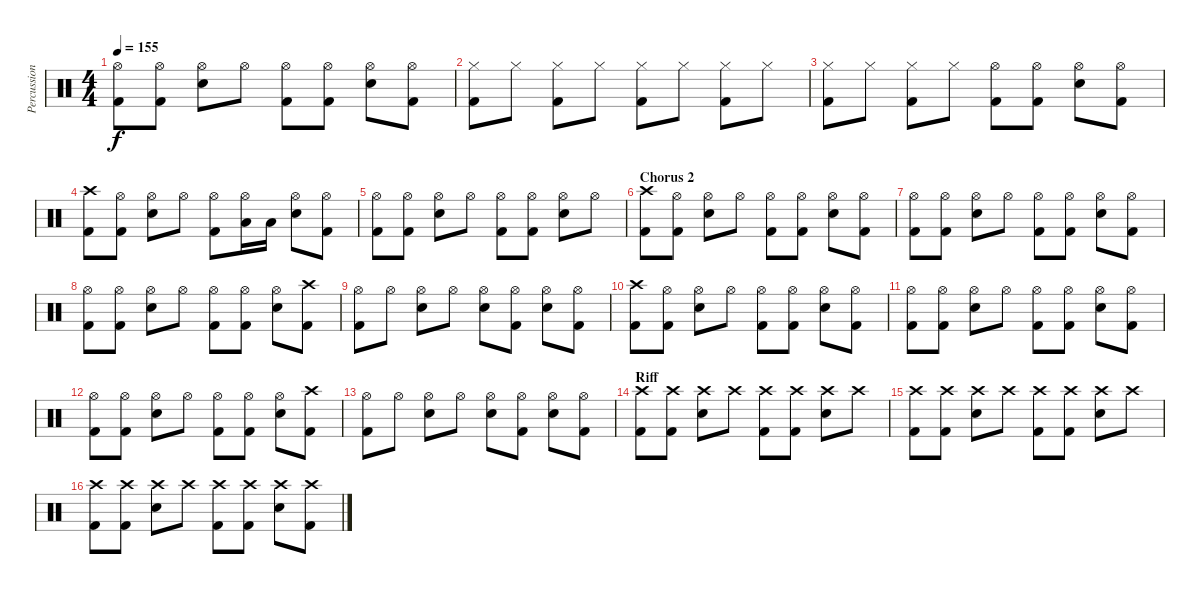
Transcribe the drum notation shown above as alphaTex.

\track ("Percussion" "Percussion") {instrument percussion}
\staff {score}
\articulation defaults
\ts (4 4)
\tempo 155
\clef neutral
\ks c
("Hi-Hat (open)" "Kick (hit) 2").8{dy f} ("Hi-Hat (open)" "Kick (hit) 2").8 ("Hi-Hat (open)" "Snare (hit) 2").8 "Hi-Hat (open)".8 ("Hi-Hat (open)" "Kick (hit) 2").8 ("Hi-Hat (open)" "Kick (hit) 2").8 ("Hi-Hat (open)" "Snare (hit) 2").8 ("Hi-Hat (open)" "Kick (hit) 2").8 |
("Hi-Hat (closed)" "Kick (hit) 2").8 "Hi-Hat (closed)".8 ("Hi-Hat (closed)" "Kick (hit) 2").8 "Hi-Hat (closed)".8 ("Hi-Hat (closed)" "Kick (hit) 2").8 "Hi-Hat (closed)".8 ("Hi-Hat (closed)" "Kick (hit) 2").8 "Hi-Hat (closed)".8 |
("Hi-Hat (closed)" "Kick (hit) 2").8 "Hi-Hat (closed)".8 ("Hi-Hat (closed)" "Kick (hit) 2").8 "Hi-Hat (closed)".8 ("Hi-Hat (open)" "Kick (hit) 2").8 ("Hi-Hat (open)" "Kick (hit) 2").8 ("Hi-Hat (open)" "Snare (hit) 2").8 ("Hi-Hat (open)" "Kick (hit) 2").8 |
("Crash high (hit)" "Kick (hit) 2").8 ("Hi-Hat (open)" "Kick (hit) 2").8 ("Hi-Hat (open)" "Snare (hit) 2").8 "Hi-Hat (open)".8 ("Hi-Hat (open)" "Kick (hit) 2").8 ("Hi-Hat (open)" "Low Tom (hit)").16 "Low Tom (hit)".16 ("Hi-Hat (open)" "Snare (hit) 2").8 ("Hi-Hat (open)" "Kick (hit) 2").8 |
("Hi-Hat (open)" "Kick (hit) 2").8 ("Hi-Hat (open)" "Kick (hit) 2").8 ("Hi-Hat (open)" "Snare (hit) 2").8 "Hi-Hat (open)".8 ("Hi-Hat (open)" "Kick (hit) 2").8 ("Hi-Hat (open)" "Kick (hit) 2").8 ("Hi-Hat (open)" "Snare (hit) 2").8 "Hi-Hat (open)".8 |
\section ("" "Chorus 2")
("Crash high (hit)" "Kick (hit) 2").8 ("Hi-Hat (open)" "Kick (hit) 2").8 ("Hi-Hat (open)" "Snare (hit) 2").8 "Hi-Hat (open)".8 ("Hi-Hat (open)" "Kick (hit) 2").8 ("Hi-Hat (open)" "Kick (hit) 2").8 ("Hi-Hat (open)" "Snare (hit) 2").8 ("Hi-Hat (open)" "Kick (hit) 2").8 |
("Hi-Hat (open)" "Kick (hit) 2").8 ("Hi-Hat (open)" "Kick (hit) 2").8 ("Hi-Hat (open)" "Snare (hit) 2").8 "Hi-Hat (open)".8 ("Hi-Hat (open)" "Kick (hit) 2").8 ("Hi-Hat (open)" "Kick (hit) 2").8 ("Hi-Hat (open)" "Snare (hit) 2").8 ("Hi-Hat (open)" "Kick (hit) 2").8 |
("Hi-Hat (open)" "Kick (hit) 2").8 ("Hi-Hat (open)" "Kick (hit) 2").8 ("Hi-Hat (open)" "Snare (hit) 2").8 "Hi-Hat (open)".8 ("Hi-Hat (open)" "Kick (hit) 2").8 ("Hi-Hat (open)" "Kick (hit) 2").8 ("Hi-Hat (open)" "Snare (hit) 2").8 ("Crash high (hit)" "Kick (hit) 2").8 |
("Hi-Hat (open)" "Kick (hit) 2").8 "Hi-Hat (open)".8 ("Hi-Hat (open)" "Snare (hit) 2").8 "Hi-Hat (open)".8 ("Hi-Hat (open)" "Snare (hit) 2").8 ("Hi-Hat (open)" "Kick (hit) 2").8 ("Hi-Hat (open)" "Snare (hit) 2").8 ("Hi-Hat (open)" "Kick (hit) 2").8 |
("Crash high (hit)" "Kick (hit) 2").8 ("Hi-Hat (open)" "Kick (hit) 2").8 ("Hi-Hat (open)" "Snare (hit) 2").8 "Hi-Hat (open)".8 ("Hi-Hat (open)" "Kick (hit) 2").8 ("Hi-Hat (open)" "Kick (hit) 2").8 ("Hi-Hat (open)" "Snare (hit) 2").8 ("Hi-Hat (open)" "Kick (hit) 2").8 |
("Hi-Hat (open)" "Kick (hit) 2").8 ("Hi-Hat (open)" "Kick (hit) 2").8 ("Hi-Hat (open)" "Snare (hit) 2").8 "Hi-Hat (open)".8 ("Hi-Hat (open)" "Kick (hit) 2").8 ("Hi-Hat (open)" "Kick (hit) 2").8 ("Hi-Hat (open)" "Snare (hit) 2").8 ("Hi-Hat (open)" "Kick (hit) 2").8 |
("Hi-Hat (open)" "Kick (hit) 2").8 ("Hi-Hat (open)" "Kick (hit) 2").8 ("Hi-Hat (open)" "Snare (hit) 2").8 "Hi-Hat (open)".8 ("Hi-Hat (open)" "Kick (hit) 2").8 ("Hi-Hat (open)" "Kick (hit) 2").8 ("Hi-Hat (open)" "Snare (hit) 2").8 ("Crash high (hit)" "Kick (hit) 2").8 |
("Hi-Hat (open)" "Kick (hit) 2").8 "Hi-Hat (open)".8 ("Hi-Hat (open)" "Snare (hit) 2").8 "Hi-Hat (open)".8 ("Hi-Hat (open)" "Snare (hit) 2").8 ("Hi-Hat (open)" "Kick (hit) 2").8 ("Hi-Hat (open)" "Snare (hit) 2").8 ("Hi-Hat (open)" "Kick (hit) 2").8 |
\section ("" "Riff")
("Crash high (hit)" "Kick (hit) 2").8 ("Crash high (hit)" "Kick (hit) 2").8 ("Crash high (hit)" "Snare (hit) 2").8 "Crash high (hit)".8 ("Crash high (hit)" "Kick (hit) 2").8 ("Crash high (hit)" "Kick (hit) 2").8 ("Crash high (hit)" "Snare (hit) 2").8 "Crash high (hit)".8 |
("Crash high (hit)" "Kick (hit) 2").8 ("Crash high (hit)" "Kick (hit) 2").8 ("Crash high (hit)" "Snare (hit) 2").8 "Crash high (hit)".8 ("Crash high (hit)" "Kick (hit) 2").8 ("Crash high (hit)" "Kick (hit) 2").8 ("Crash high (hit)" "Snare (hit) 2").8 "Crash high (hit)".8 |
("Crash high (hit)" "Kick (hit) 2").8 ("Crash high (hit)" "Kick (hit) 2").8 ("Crash high (hit)" "Snare (hit) 2").8 "Crash high (hit)".8 ("Crash high (hit)" "Kick (hit) 2").8 ("Crash high (hit)" "Kick (hit) 2").8 ("Crash high (hit)" "Snare (hit) 2").8 ("Crash high (hit)" "Kick (hit) 2").8
